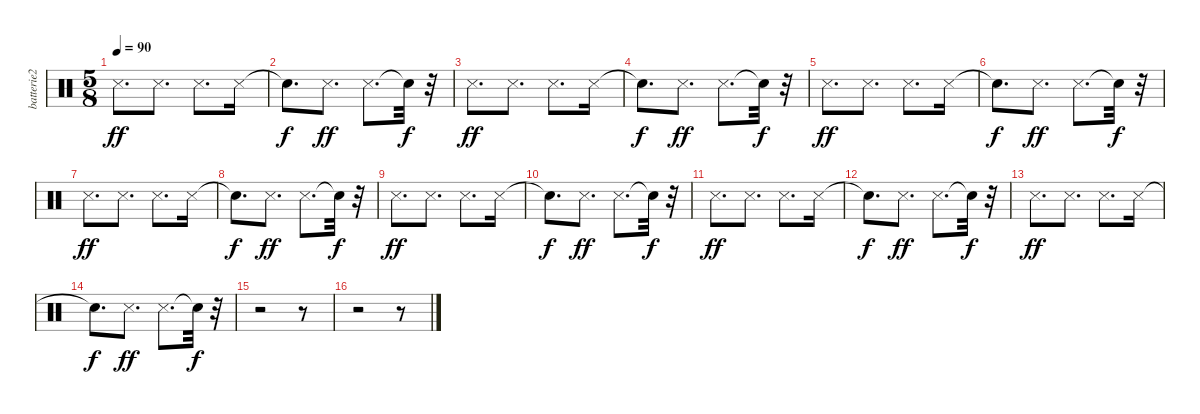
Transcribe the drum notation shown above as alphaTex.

\track ("batterie2" "batterie2") {instrument percussion}
\staff {score}
\articulation defaults
\ts (5 8)
\tempo 90
\clef neutral
\ks c "Snare (side stick) 3".8{d dy ff} "Snare (side stick) 3".8{d} "Snare (side stick) 3".8{d} "Snare (side stick) 3".16
|
"Snare (hit)"{t}.8{d dy f} "Snare (side stick) 3".8{d dy ff} "Snare (side stick) 3".8{d} "Snare (hit)"{t}.32{dy f} r.32 |
"Snare (side stick) 3".8{d dy ff} "Snare (side stick) 3".8{d} "Snare (side stick) 3".8{d} "Snare (side stick) 3".16 |
"Snare (hit)"{t}.8{d dy f} "Snare (side stick) 3".8{d dy ff} "Snare (side stick) 3".8{d} "Snare (hit)"{t}.32{dy f} r.32 |
"Snare (side stick) 3".8{d dy ff} "Snare (side stick) 3".8{d} "Snare (side stick) 3".8{d} "Snare (side stick) 3".16 |
"Snare (hit)"{t}.8{d dy f} "Snare (side stick) 3".8{d dy ff} "Snare (side stick) 3".8{d} "Snare (hit)"{t}.32{dy f} r.32 |
"Snare (side stick) 3".8{d dy ff} "Snare (side stick) 3".8{d} "Snare (side stick) 3".8{d} "Snare (side stick) 3".16 |
"Snare (hit)"{t}.8{d dy f} "Snare (side stick) 3".8{d dy ff} "Snare (side stick) 3".8{d} "Snare (hit)"{t}.32{dy f} r.32 |
"Snare (side stick) 3".8{d dy ff} "Snare (side stick) 3".8{d} "Snare (side stick) 3".8{d} "Snare (side stick) 3".16 |
"Snare (hit)"{t}.8{d dy f} "Snare (side stick) 3".8{d dy ff} "Snare (side stick) 3".8{d} "Snare (hit)"{t}.32{dy f} r.32 |
"Snare (side stick) 3".8{d dy ff} "Snare (side stick) 3".8{d} "Snare (side stick) 3".8{d} "Snare (side stick) 3".16 |
"Snare (hit)"{t}.8{d dy f} "Snare (side stick) 3".8{d dy ff} "Snare (side stick) 3".8{d} "Snare (hit)"{t}.32{dy f} r.32 |
"Snare (side stick) 3".8{d dy ff} "Snare (side stick) 3".8{d} "Snare (side stick) 3".8{d} "Snare (side stick) 3".16 |
"Snare (hit)"{t}.8{d dy f} "Snare (side stick) 3".8{d dy ff} "Snare (side stick) 3".8{d} "Snare (hit)"{t}.32{dy f} r.32 |
r.2 r.8 |
r.2 r.8
